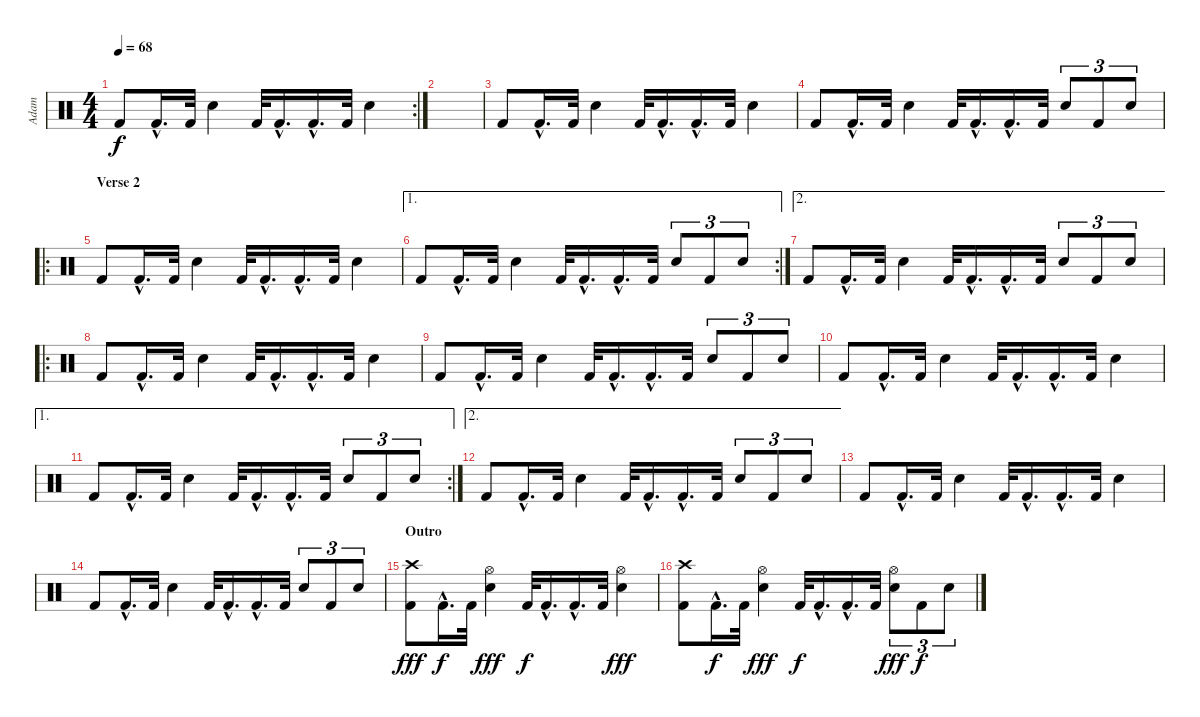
\track ("Adam" "Adam") {instrument percussion}
\staff {score}
\articulation defaults
\rc 2
\ts (4 4)
\tempo 68
\clef neutral
\ks c "Kick (hit) 2".8{dy f} "Kick (hit) 2"{hac}.16{d} "Kick (hit) 2".32 "Electric Snare (hit)".4 "Kick (hit) 2".32 "Kick (hit) 2"{hac}.16{d} "Kick (hit) 2"{hac}.16{d} "Kick (hit) 2".32 "Electric Snare (hit)".4
|
|
"Kick (hit) 2".8 "Kick (hit) 2"{hac}.16{d} "Kick (hit) 2".32 "Electric Snare (hit)".4 "Kick (hit) 2".32 "Kick (hit) 2"{hac}.16{d} "Kick (hit) 2"{hac}.16{d} "Kick (hit) 2".32 "Electric Snare (hit)".4 |
"Kick (hit) 2".8 "Kick (hit) 2"{hac}.16{d} "Kick (hit) 2".32 "Electric Snare (hit)".4 "Kick (hit) 2".32 "Kick (hit) 2"{hac}.16{d} "Kick (hit) 2"{hac}.16{d} "Kick (hit) 2".32 "Electric Snare (hit)".8{tu (3 2)} "Kick (hit) 2".8{tu (3 2)} "Electric Snare (hit)".8{tu (3 2)} |
\ro
\section ("" "Verse 2")
"Kick (hit) 2".8 "Kick (hit) 2"{hac}.16{d} "Kick (hit) 2".32 "Electric Snare (hit)".4 "Kick (hit) 2".32 "Kick (hit) 2"{hac}.16{d} "Kick (hit) 2"{hac}.16{d} "Kick (hit) 2".32 "Electric Snare (hit)".4 |
\ae 1
\rc 2 "Kick (hit) 2".8 "Kick (hit) 2"{hac}.16{d} "Kick (hit) 2".32 "Electric Snare (hit)".4 "Kick (hit) 2".32 "Kick (hit) 2"{hac}.16{d} "Kick (hit) 2"{hac}.16{d} "Kick (hit) 2".32 "Electric Snare (hit)".8{tu (3 2)} "Kick (hit) 2".8{tu (3 2)} "Electric Snare (hit)".8{tu (3 2)}
|
\ae 2 "Kick (hit) 2".8 "Kick (hit) 2"{hac}.16{d} "Kick (hit) 2".32 "Electric Snare (hit)".4 "Kick (hit) 2".32 "Kick (hit) 2"{hac}.16{d} "Kick (hit) 2"{hac}.16{d} "Kick (hit) 2".32 "Electric Snare (hit)".8{tu (3 2)} "Kick (hit) 2".8{tu (3 2)} "Electric Snare (hit)".8{tu (3 2)}
|
\ro "Kick (hit) 2".8 "Kick (hit) 2"{hac}.16{d} "Kick (hit) 2".32 "Electric Snare (hit)".4 "Kick (hit) 2".32 "Kick (hit) 2"{hac}.16{d} "Kick (hit) 2"{hac}.16{d} "Kick (hit) 2".32 "Electric Snare (hit)".4
|
"Kick (hit) 2".8 "Kick (hit) 2"{hac}.16{d} "Kick (hit) 2".32 "Electric Snare (hit)".4 "Kick (hit) 2".32 "Kick (hit) 2"{hac}.16{d} "Kick (hit) 2"{hac}.16{d} "Kick (hit) 2".32 "Electric Snare (hit)".8{tu (3 2)} "Kick (hit) 2".8{tu (3 2)} "Electric Snare (hit)".8{tu (3 2)} |
"Kick (hit) 2".8 "Kick (hit) 2"{hac}.16{d} "Kick (hit) 2".32 "Electric Snare (hit)".4 "Kick (hit) 2".32 "Kick (hit) 2"{hac}.16{d} "Kick (hit) 2"{hac}.16{d} "Kick (hit) 2".32 "Electric Snare (hit)".4 |
\ae 1
\rc 2 "Kick (hit) 2".8 "Kick (hit) 2"{hac}.16{d} "Kick (hit) 2".32 "Electric Snare (hit)".4 "Kick (hit) 2".32 "Kick (hit) 2"{hac}.16{d} "Kick (hit) 2"{hac}.16{d} "Kick (hit) 2".32 "Electric Snare (hit)".8{tu (3 2)} "Kick (hit) 2".8{tu (3 2)} "Electric Snare (hit)".8{tu (3 2)}
|
\ae 2 "Kick (hit) 2".8 "Kick (hit) 2"{hac}.16{d} "Kick (hit) 2".32 "Electric Snare (hit)".4 "Kick (hit) 2".32 "Kick (hit) 2"{hac}.16{d} "Kick (hit) 2"{hac}.16{d} "Kick (hit) 2".32 "Electric Snare (hit)".8{tu (3 2)} "Kick (hit) 2".8{tu (3 2)} "Electric Snare (hit)".8{tu (3 2)}
|
"Kick (hit) 2".8 "Kick (hit) 2"{hac}.16{d} "Kick (hit) 2".32 "Electric Snare (hit)".4 "Kick (hit) 2".32 "Kick (hit) 2"{hac}.16{d} "Kick (hit) 2"{hac}.16{d} "Kick (hit) 2".32 "Electric Snare (hit)".4 |
"Kick (hit) 2".8 "Kick (hit) 2"{hac}.16{d} "Kick (hit) 2".32 "Electric Snare (hit)".4 "Kick (hit) 2".32 "Kick (hit) 2"{hac}.16{d} "Kick (hit) 2"{hac}.16{d} "Kick (hit) 2".32 "Electric Snare (hit)".8{tu (3 2)} "Kick (hit) 2".8{tu (3 2)} "Electric Snare (hit)".8{tu (3 2)} |
\section ("" "Outro")
("Crash high (hit)" "Kick (hit) 2").8{dy fff} "Kick (hit) 2"{hac}.16{d dy f} "Kick (hit) 2".32 ("Hi-Hat (open)" "Electric Snare (hit)").4{dy fff} "Kick (hit) 2".32{dy f} "Kick (hit) 2"{hac}.16{d} "Kick (hit) 2"{hac}.16{d} "Kick (hit) 2".32 ("Hi-Hat (open)" "Electric Snare (hit)").4{dy fff} |
("Crash high (hit)" "Kick (hit) 2").8 "Kick (hit) 2"{hac}.16{d dy f} "Kick (hit) 2".32 ("Hi-Hat (open)" "Electric Snare (hit)").4{dy fff} "Kick (hit) 2".32{dy f} "Kick (hit) 2"{hac}.16{d} "Kick (hit) 2"{hac}.16{d} "Kick (hit) 2".32 ("Hi-Hat (open)" "Electric Snare (hit)").8{tu (3 2) dy fff} "Kick (hit) 2".8{tu (3 2) dy f} "Electric Snare (hit)".8{tu (3 2)}
